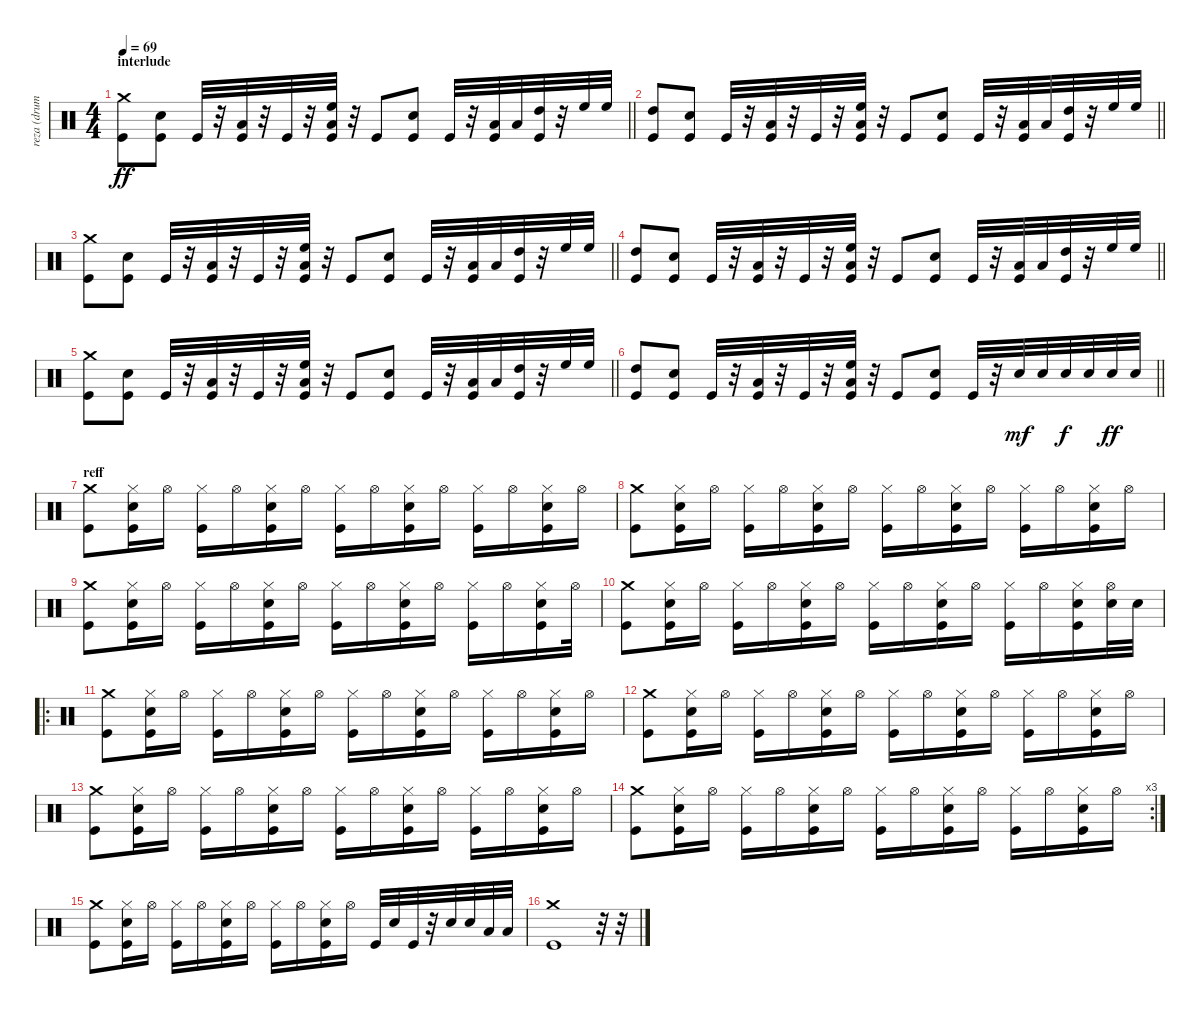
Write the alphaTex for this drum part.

\track ("reza (drum)" "reza (drum") {instrument percussion}
\staff {score}
\articulation defaults
\ts (4 4)
\section ("" "interlude")
\tempo 69
\clef neutral
\barLineRight lightlight
\ks c
("Crash medium (hit)" "Kick (hit)").8{dy ff} ("Electric Snare (hit)" "Kick (hit)").8 "Kick (hit)".32 r.32 ("Low Tom (hit)" "Kick (hit)").32 r.32 "Kick (hit)".32 r.32 ("High Floor Tom (hit)" "Low Tom (hit)" "Kick (hit)").32 r.32 "Kick (hit)".8 ("Electric Snare (hit)" "Kick (hit)").8 "Kick (hit)".32 r.32 ("Low Tom (hit)" "Kick (hit)").32 "Low Tom (hit)".32 ("High Tom (hit)" "Kick (hit)").32 r.32 "High Floor Tom (hit)".32 "High Floor Tom (hit)".32 |
\barLineRight lightlight
("High Tom (hit)" "Kick (hit)").8 ("Electric Snare (hit)" "Kick (hit)").8 "Kick (hit)".32 r.32 ("Low Tom (hit)" "Kick (hit)").32 r.32 "Kick (hit)".32 r.32 ("High Floor Tom (hit)" "Low Tom (hit)" "Kick (hit)").32 r.32 "Kick (hit)".8 ("Electric Snare (hit)" "Kick (hit)").8 "Kick (hit)".32 r.32 ("Low Tom (hit)" "Kick (hit)").32 "Low Tom (hit)".32 ("High Tom (hit)" "Kick (hit)").32 r.32 "High Floor Tom (hit)".32 "High Floor Tom (hit)".32 |
\barLineRight lightlight
("Crash medium (hit)" "Kick (hit)").8 ("Electric Snare (hit)" "Kick (hit)").8 "Kick (hit)".32 r.32 ("Low Tom (hit)" "Kick (hit)").32 r.32 "Kick (hit)".32 r.32 ("High Floor Tom (hit)" "Low Tom (hit)" "Kick (hit)").32 r.32 "Kick (hit)".8 ("Electric Snare (hit)" "Kick (hit)").8 "Kick (hit)".32 r.32 ("Low Tom (hit)" "Kick (hit)").32 "Low Tom (hit)".32 ("High Tom (hit)" "Kick (hit)").32 r.32 "High Floor Tom (hit)".32 "High Floor Tom (hit)".32 |
\barLineRight lightlight
("High Tom (hit)" "Kick (hit)").8 ("Electric Snare (hit)" "Kick (hit)").8 "Kick (hit)".32 r.32 ("Low Tom (hit)" "Kick (hit)").32 r.32 "Kick (hit)".32 r.32 ("High Floor Tom (hit)" "Low Tom (hit)" "Kick (hit)").32 r.32 "Kick (hit)".8 ("Electric Snare (hit)" "Kick (hit)").8 "Kick (hit)".32 r.32 ("Low Tom (hit)" "Kick (hit)").32 "Low Tom (hit)".32 ("High Tom (hit)" "Kick (hit)").32 r.32 "High Floor Tom (hit)".32 "High Floor Tom (hit)".32 |
\barLineRight lightlight
("Crash medium (hit)" "Kick (hit)").8 ("Electric Snare (hit)" "Kick (hit)").8 "Kick (hit)".32 r.32 ("Low Tom (hit)" "Kick (hit)").32 r.32 "Kick (hit)".32 r.32 ("High Floor Tom (hit)" "Low Tom (hit)" "Kick (hit)").32 r.32 "Kick (hit)".8 ("Electric Snare (hit)" "Kick (hit)").8 "Kick (hit)".32 r.32 ("Low Tom (hit)" "Kick (hit)").32 "Low Tom (hit)".32 ("High Tom (hit)" "Kick (hit)").32 r.32 "High Floor Tom (hit)".32 "High Floor Tom (hit)".32 |
\barLineRight lightlight
("High Tom (hit)" "Kick (hit)").8 ("Electric Snare (hit)" "Kick (hit)").8 "Kick (hit)".32 r.32 ("Low Tom (hit)" "Kick (hit)").32 r.32 "Kick (hit)".32 r.32 ("High Floor Tom (hit)" "Low Tom (hit)" "Kick (hit)").32 r.32 "Kick (hit)".8 ("Electric Snare (hit)" "Kick (hit)").8 "Kick (hit)".32 r.32 "Electric Snare (hit)".32{dy mf} "Electric Snare (hit)".32 "Electric Snare (hit)".32{dy f} "Electric Snare (hit)".32 "Electric Snare (hit)".32{dy ff} "Electric Snare (hit)".32 |
\section ("" "reff")
("Crash medium (hit)" "Kick (hit)").8 ("Hi-Hat (closed)" "Electric Snare (hit)" "Kick (hit)").16 "Hi-Hat (open)".16 ("Hi-Hat (closed)" "Kick (hit)").16 "Hi-Hat (open)".16 ("Hi-Hat (closed)" "Electric Snare (hit)" "Kick (hit)").16 "Hi-Hat (open)".16 ("Hi-Hat (closed)" "Kick (hit)").16 "Hi-Hat (open)".16 ("Hi-Hat (closed)" "Electric Snare (hit)" "Kick (hit)").16 "Hi-Hat (open)".16 ("Hi-Hat (closed)" "Kick (hit)").16 "Hi-Hat (open)".16 ("Hi-Hat (closed)" "Electric Snare (hit)" "Kick (hit)").16 "Hi-Hat (open)".16 |
("Crash medium (hit)" "Kick (hit)").8 ("Hi-Hat (closed)" "Electric Snare (hit)" "Kick (hit)").16 "Hi-Hat (open)".16 ("Hi-Hat (closed)" "Kick (hit)").16 "Hi-Hat (open)".16 ("Hi-Hat (closed)" "Electric Snare (hit)" "Kick (hit)").16 "Hi-Hat (open)".16 ("Hi-Hat (closed)" "Kick (hit)").16 "Hi-Hat (open)".16 ("Hi-Hat (closed)" "Electric Snare (hit)" "Kick (hit)").16 "Hi-Hat (open)".16 ("Hi-Hat (closed)" "Kick (hit)").16 "Hi-Hat (open)".16 ("Hi-Hat (closed)" "Electric Snare (hit)" "Kick (hit)").16 "Hi-Hat (open)".16 |
("Crash medium (hit)" "Kick (hit)").8 ("Hi-Hat (closed)" "Electric Snare (hit)" "Kick (hit)").16 "Hi-Hat (open)".16 ("Hi-Hat (closed)" "Kick (hit)").16 "Hi-Hat (open)".16 ("Hi-Hat (closed)" "Electric Snare (hit)" "Kick (hit)").16 "Hi-Hat (open)".16 ("Hi-Hat (closed)" "Kick (hit)").16 "Hi-Hat (open)".16 ("Hi-Hat (closed)" "Electric Snare (hit)" "Kick (hit)").16 "Hi-Hat (open)".16 ("Hi-Hat (closed)" "Kick (hit)").16 "Hi-Hat (open)".16 ("Hi-Hat (closed)" "Electric Snare (hit)" "Kick (hit)").16 "Hi-Hat (open)".32 |
("Crash medium (hit)" "Kick (hit)").8 ("Hi-Hat (closed)" "Electric Snare (hit)" "Kick (hit)").16 "Hi-Hat (open)".16 ("Hi-Hat (closed)" "Kick (hit)").16 "Hi-Hat (open)".16 ("Hi-Hat (closed)" "Electric Snare (hit)" "Kick (hit)").16 "Hi-Hat (open)".16 ("Hi-Hat (closed)" "Kick (hit)").16 "Hi-Hat (open)".16 ("Hi-Hat (closed)" "Electric Snare (hit)" "Kick (hit)").16 "Hi-Hat (open)".16 ("Hi-Hat (closed)" "Kick (hit)").16 "Hi-Hat (open)".16 ("Hi-Hat (closed)" "Electric Snare (hit)" "Kick (hit)").16 ("Hi-Hat (open)" "Electric Snare (hit)").32 "Electric Snare (hit)".32 |
\ro
("Crash medium (hit)" "Kick (hit)").8 ("Hi-Hat (closed)" "Electric Snare (hit)" "Kick (hit)").16 "Hi-Hat (open)".16 ("Hi-Hat (closed)" "Kick (hit)").16 "Hi-Hat (open)".16 ("Hi-Hat (closed)" "Electric Snare (hit)" "Kick (hit)").16 "Hi-Hat (open)".16 ("Hi-Hat (closed)" "Kick (hit)").16 "Hi-Hat (open)".16 ("Hi-Hat (closed)" "Electric Snare (hit)" "Kick (hit)").16 "Hi-Hat (open)".16 ("Hi-Hat (closed)" "Kick (hit)").16 "Hi-Hat (open)".16 ("Hi-Hat (closed)" "Electric Snare (hit)" "Kick (hit)").16 "Hi-Hat (open)".16 |
("Crash medium (hit)" "Kick (hit)").8 ("Hi-Hat (closed)" "Electric Snare (hit)" "Kick (hit)").16 "Hi-Hat (open)".16 ("Hi-Hat (closed)" "Kick (hit)").16 "Hi-Hat (open)".16 ("Hi-Hat (closed)" "Electric Snare (hit)" "Kick (hit)").16 "Hi-Hat (open)".16 ("Hi-Hat (closed)" "Kick (hit)").16 "Hi-Hat (open)".16 ("Hi-Hat (closed)" "Electric Snare (hit)" "Kick (hit)").16 "Hi-Hat (open)".16 ("Hi-Hat (closed)" "Kick (hit)").16 "Hi-Hat (open)".16 ("Hi-Hat (closed)" "Electric Snare (hit)" "Kick (hit)").16 "Hi-Hat (open)".16 |
("Crash medium (hit)" "Kick (hit)").8 ("Hi-Hat (closed)" "Electric Snare (hit)" "Kick (hit)").16 "Hi-Hat (open)".16 ("Hi-Hat (closed)" "Kick (hit)").16 "Hi-Hat (open)".16 ("Hi-Hat (closed)" "Electric Snare (hit)" "Kick (hit)").16 "Hi-Hat (open)".16 ("Hi-Hat (closed)" "Kick (hit)").16 "Hi-Hat (open)".16 ("Hi-Hat (closed)" "Electric Snare (hit)" "Kick (hit)").16 "Hi-Hat (open)".16 ("Hi-Hat (closed)" "Kick (hit)").16 "Hi-Hat (open)".16 ("Hi-Hat (closed)" "Electric Snare (hit)" "Kick (hit)").16 "Hi-Hat (open)".16 |
\rc 3
("Crash medium (hit)" "Kick (hit)").8 ("Hi-Hat (closed)" "Electric Snare (hit)" "Kick (hit)").16 "Hi-Hat (open)".16 ("Hi-Hat (closed)" "Kick (hit)").16 "Hi-Hat (open)".16 ("Hi-Hat (closed)" "Electric Snare (hit)" "Kick (hit)").16 "Hi-Hat (open)".16 ("Hi-Hat (closed)" "Kick (hit)").16 "Hi-Hat (open)".16 ("Hi-Hat (closed)" "Electric Snare (hit)" "Kick (hit)").16 "Hi-Hat (open)".16 ("Hi-Hat (closed)" "Kick (hit)").16 "Hi-Hat (open)".16 ("Hi-Hat (closed)" "Electric Snare (hit)" "Kick (hit)").16 "Hi-Hat (open)".16 |
("Crash medium (hit)" "Kick (hit)").8 ("Hi-Hat (closed)" "Electric Snare (hit)" "Kick (hit)").16 "Hi-Hat (open)".16 ("Hi-Hat (closed)" "Kick (hit)").16 "Hi-Hat (open)".16 ("Hi-Hat (closed)" "Electric Snare (hit)" "Kick (hit)").16 "Hi-Hat (open)".16 ("Hi-Hat (closed)" "Kick (hit)").16 "Hi-Hat (open)".16 ("Hi-Hat (closed)" "Electric Snare (hit)" "Kick (hit)").16 "Hi-Hat (open)".16 "Kick (hit)".32 "Electric Snare (hit)".32 "Kick (hit)".32 r.32 "Electric Snare (hit)".32 "Electric Snare (hit)".32 "Low Tom (hit)".32 "Low Tom (hit)".32 |
("Crash medium (hit)" "Kick (hit)").1 r.32 r.32
